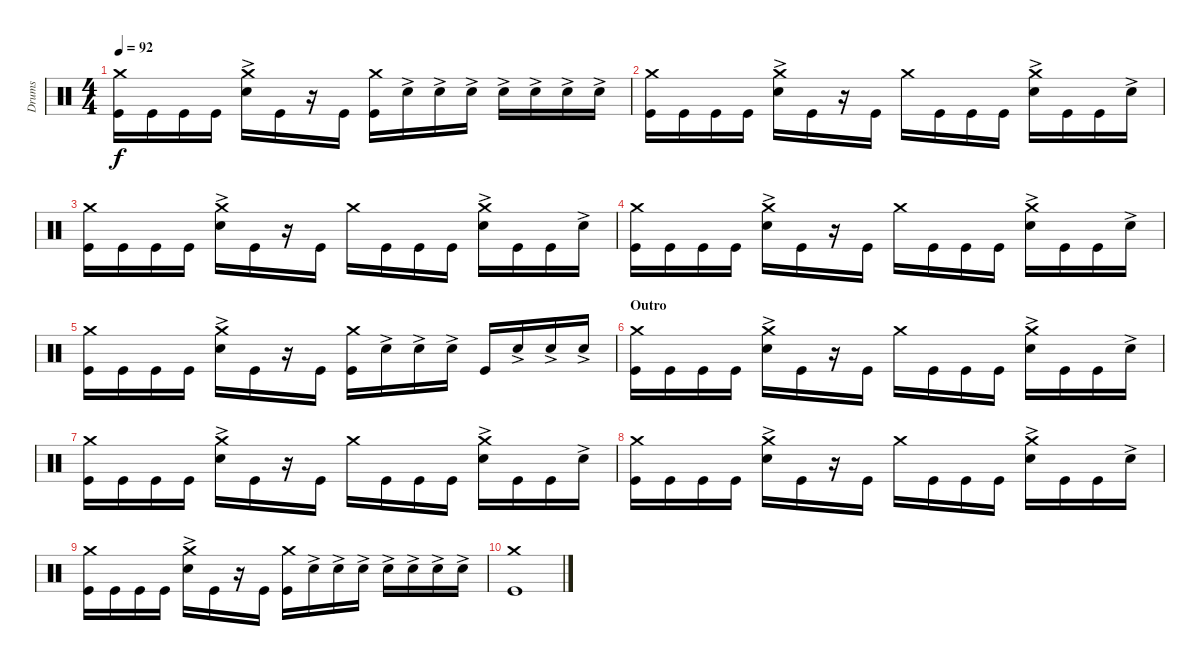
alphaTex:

\track ("Drums" "Drums") {instrument percussion}
\staff {score}
\articulation defaults
\ts (4 4)
\tempo 92
\clef neutral
\ks c
("Crash medium (hit)" "Kick (hit)").16{dy f} "Kick (hit)".16 "Kick (hit)".16 "Kick (hit)".16 ("Crash medium (hit)" "Snare (hit) 2"{ac}).16 "Kick (hit)".16 r.16 "Kick (hit)".16 ("Kick (hit)" "Crash medium (hit)").16 "Snare (hit) 2"{ac}.16 "Snare (hit) 2"{ac}.16 "Snare (hit) 2"{ac}.16 "Snare (hit) 2"{ac}.16 "Snare (hit) 2"{ac}.16 "Snare (hit) 2"{ac}.16 "Snare (hit) 2"{ac}.16 |
("Crash medium (hit)" "Kick (hit)").16 "Kick (hit)".16 "Kick (hit)".16 "Kick (hit)".16 ("Crash medium (hit)" "Snare (hit) 2"{ac}).16 "Kick (hit)".16 r.16 "Kick (hit)".16 "Crash medium (hit)".16 "Kick (hit)".16 "Kick (hit)".16 "Kick (hit)".16 ("Crash medium (hit)" "Snare (hit) 2"{ac}).16 "Kick (hit)".16 "Kick (hit)".16 "Snare (hit) 2"{ac}.16 |
("Crash medium (hit)" "Kick (hit)").16 "Kick (hit)".16 "Kick (hit)".16 "Kick (hit)".16 ("Crash medium (hit)" "Snare (hit) 2"{ac}).16 "Kick (hit)".16 r.16 "Kick (hit)".16 "Crash medium (hit)".16 "Kick (hit)".16 "Kick (hit)".16 "Kick (hit)".16 ("Crash medium (hit)" "Snare (hit) 2"{ac}).16 "Kick (hit)".16 "Kick (hit)".16 "Snare (hit) 2"{ac}.16 |
("Crash medium (hit)" "Kick (hit)").16 "Kick (hit)".16 "Kick (hit)".16 "Kick (hit)".16 ("Crash medium (hit)" "Snare (hit) 2"{ac}).16 "Kick (hit)".16 r.16 "Kick (hit)".16 "Crash medium (hit)".16 "Kick (hit)".16 "Kick (hit)".16 "Kick (hit)".16 ("Crash medium (hit)" "Snare (hit) 2"{ac}).16 "Kick (hit)".16 "Kick (hit)".16 "Snare (hit) 2"{ac}.16 |
("Crash medium (hit)" "Kick (hit)").16 "Kick (hit)".16 "Kick (hit)".16 "Kick (hit)".16 ("Crash medium (hit)" "Snare (hit) 2"{ac}).16 "Kick (hit)".16 r.16 "Kick (hit)".16 ("Kick (hit)" "Crash medium (hit)").16 "Snare (hit) 2"{ac}.16 "Snare (hit) 2"{ac}.16 "Snare (hit) 2"{ac}.16 "Kick (hit)".16 "Snare (hit) 2"{ac}.16 "Snare (hit) 2"{ac}.16 "Snare (hit) 2"{ac}.16 |
\section ("" "Outro")
("Crash medium (hit)" "Kick (hit)").16 "Kick (hit)".16 "Kick (hit)".16 "Kick (hit)".16 ("Crash medium (hit)" "Snare (hit) 2"{ac}).16 "Kick (hit)".16 r.16 "Kick (hit)".16 "Crash medium (hit)".16 "Kick (hit)".16 "Kick (hit)".16 "Kick (hit)".16 ("Crash medium (hit)" "Snare (hit) 2"{ac}).16 "Kick (hit)".16 "Kick (hit)".16 "Snare (hit) 2"{ac}.16 |
("Crash medium (hit)" "Kick (hit)").16 "Kick (hit)".16 "Kick (hit)".16 "Kick (hit)".16 ("Crash medium (hit)" "Snare (hit) 2"{ac}).16 "Kick (hit)".16 r.16 "Kick (hit)".16 "Crash medium (hit)".16 "Kick (hit)".16 "Kick (hit)".16 "Kick (hit)".16 ("Crash medium (hit)" "Snare (hit) 2"{ac}).16 "Kick (hit)".16 "Kick (hit)".16 "Snare (hit) 2"{ac}.16 |
("Crash medium (hit)" "Kick (hit)").16 "Kick (hit)".16 "Kick (hit)".16 "Kick (hit)".16 ("Crash medium (hit)" "Snare (hit) 2"{ac}).16 "Kick (hit)".16 r.16 "Kick (hit)".16 "Crash medium (hit)".16 "Kick (hit)".16 "Kick (hit)".16 "Kick (hit)".16 ("Crash medium (hit)" "Snare (hit) 2"{ac}).16 "Kick (hit)".16 "Kick (hit)".16 "Snare (hit) 2"{ac}.16 |
("Crash medium (hit)" "Kick (hit)").16 "Kick (hit)".16 "Kick (hit)".16 "Kick (hit)".16 ("Crash medium (hit)" "Snare (hit) 2"{ac}).16 "Kick (hit)".16 r.16 "Kick (hit)".16 ("Kick (hit)" "Crash medium (hit)").16 "Snare (hit) 2"{ac}.16 "Snare (hit) 2"{ac}.16 "Snare (hit) 2"{ac}.16 "Snare (hit) 2"{ac}.16 "Snare (hit) 2"{ac}.16 "Snare (hit) 2"{ac}.16 "Snare (hit) 2"{ac}.16 |
("Crash medium (hit)" "Kick (hit)").1
